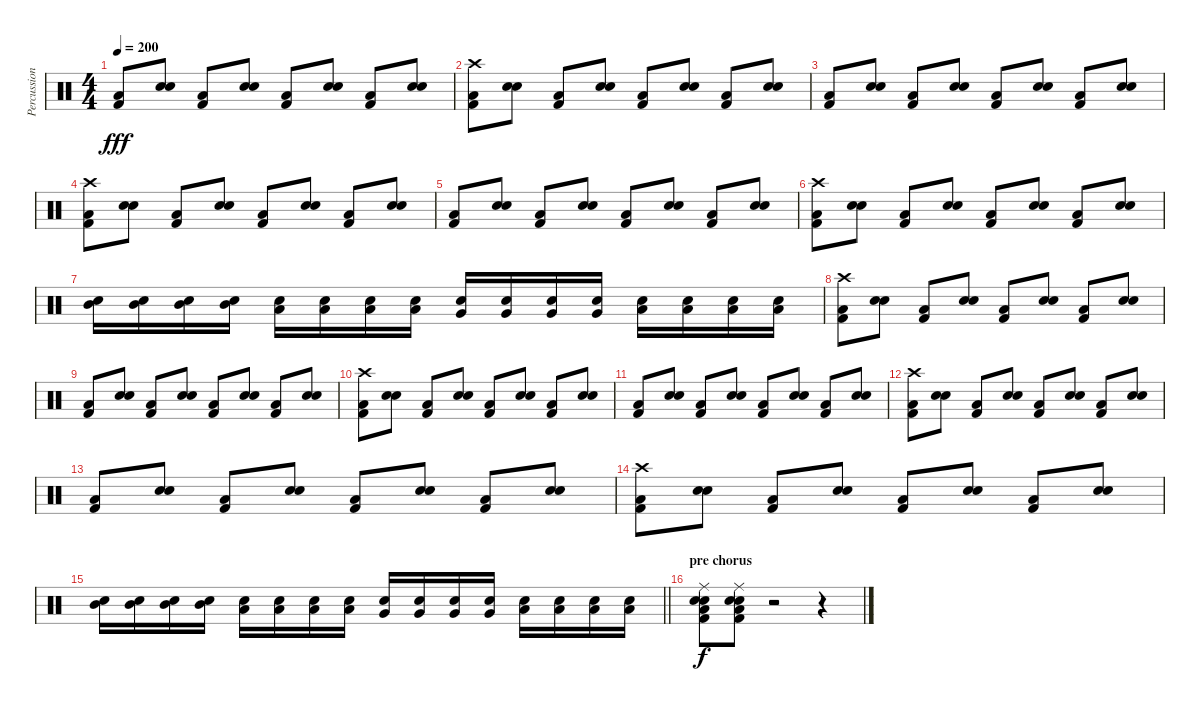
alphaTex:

\track ("Percussion, dave" "Percussion") {instrument percussion}
\staff {score}
\articulation defaults
\ts (4 4)
\tempo 200
\clef neutral
\ks c
("Low Tom (hit)" "Kick (hit) 2").8{dy fff} ("Electric Snare (hit)" "Snare (hit) 2").8 ("Low Tom (hit)" "Kick (hit) 2").8 ("Electric Snare (hit)" "Snare (hit) 2").8 ("Low Tom (hit)" "Kick (hit) 2").8 ("Electric Snare (hit)" "Snare (hit) 2").8 ("Low Tom (hit)" "Kick (hit) 2").8 ("Electric Snare (hit)" "Snare (hit) 2").8 |
("Crash high (hit)" "Low Tom (hit)" "Kick (hit) 2").8 ("Electric Snare (hit)" "Snare (hit) 2").8 ("Low Tom (hit)" "Kick (hit) 2").8 ("Electric Snare (hit)" "Snare (hit) 2").8 ("Low Tom (hit)" "Kick (hit) 2").8 ("Electric Snare (hit)" "Snare (hit) 2").8 ("Low Tom (hit)" "Kick (hit) 2").8 ("Electric Snare (hit)" "Snare (hit) 2").8 |
("Low Tom (hit)" "Kick (hit) 2").8 ("Electric Snare (hit)" "Snare (hit) 2").8 ("Low Tom (hit)" "Kick (hit) 2").8 ("Electric Snare (hit)" "Snare (hit) 2").8 ("Low Tom (hit)" "Kick (hit) 2").8 ("Electric Snare (hit)" "Snare (hit) 2").8 ("Low Tom (hit)" "Kick (hit) 2").8 ("Electric Snare (hit)" "Snare (hit) 2").8 |
("Crash high (hit)" "Low Tom (hit)" "Kick (hit) 2").8 ("Electric Snare (hit)" "Snare (hit) 2").8 ("Low Tom (hit)" "Kick (hit) 2").8 ("Electric Snare (hit)" "Snare (hit) 2").8 ("Low Tom (hit)" "Kick (hit) 2").8 ("Electric Snare (hit)" "Snare (hit) 2").8 ("Low Tom (hit)" "Kick (hit) 2").8 ("Electric Snare (hit)" "Snare (hit) 2").8 |
("Low Tom (hit)" "Kick (hit) 2").8 ("Electric Snare (hit)" "Snare (hit) 2").8 ("Low Tom (hit)" "Kick (hit) 2").8 ("Electric Snare (hit)" "Snare (hit) 2").8 ("Low Tom (hit)" "Kick (hit) 2").8 ("Electric Snare (hit)" "Snare (hit) 2").8 ("Low Tom (hit)" "Kick (hit) 2").8 ("Electric Snare (hit)" "Snare (hit) 2").8 |
("Crash high (hit)" "Low Tom (hit)" "Kick (hit) 2").8 ("Electric Snare (hit)" "Snare (hit) 2").8 ("Low Tom (hit)" "Kick (hit) 2").8 ("Electric Snare (hit)" "Snare (hit) 2").8 ("Low Tom (hit)" "Kick (hit) 2").8 ("Electric Snare (hit)" "Snare (hit) 2").8 ("Low Tom (hit)" "Kick (hit) 2").8 ("Electric Snare (hit)" "Snare (hit) 2").8 |
("Mid Tom (hit)" "Snare (hit) 2").16 ("Mid Tom (hit)" "Snare (hit) 2").16 ("Mid Tom (hit)" "Snare (hit) 2").16 ("Mid Tom (hit)" "Snare (hit) 2").16 ("Low Tom (hit)" "Snare (hit) 2").16 ("Low Tom (hit)" "Snare (hit) 2").16 ("Low Tom (hit)" "Snare (hit) 2").16 ("Low Tom (hit)" "Snare (hit) 2").16 ("Very Low Tom (hit)" "Snare (hit) 2").16 ("Very Low Tom (hit)" "Snare (hit) 2").16 ("Very Low Tom (hit)" "Snare (hit) 2").16 ("Very Low Tom (hit)" "Snare (hit) 2").16 ("Low Floor Tom (hit)" "Snare (hit) 2").16 ("Low Floor Tom (hit)" "Snare (hit) 2").16 ("Low Floor Tom (hit)" "Snare (hit) 2").16 ("Low Floor Tom (hit)" "Snare (hit) 2").16 |
("Crash high (hit)" "Low Tom (hit)" "Kick (hit) 2").8 ("Electric Snare (hit)" "Snare (hit) 2").8 ("Low Tom (hit)" "Kick (hit) 2").8 ("Electric Snare (hit)" "Snare (hit) 2").8 ("Low Tom (hit)" "Kick (hit) 2").8 ("Electric Snare (hit)" "Snare (hit) 2").8 ("Low Tom (hit)" "Kick (hit) 2").8 ("Electric Snare (hit)" "Snare (hit) 2").8 |
("Low Tom (hit)" "Kick (hit) 2").8 ("Electric Snare (hit)" "Snare (hit) 2").8 ("Low Tom (hit)" "Kick (hit) 2").8 ("Electric Snare (hit)" "Snare (hit) 2").8 ("Low Tom (hit)" "Kick (hit) 2").8 ("Electric Snare (hit)" "Snare (hit) 2").8 ("Low Tom (hit)" "Kick (hit) 2").8 ("Electric Snare (hit)" "Snare (hit) 2").8 |
("Crash high (hit)" "Low Tom (hit)" "Kick (hit) 2").8 ("Electric Snare (hit)" "Snare (hit) 2").8 ("Low Tom (hit)" "Kick (hit) 2").8 ("Electric Snare (hit)" "Snare (hit) 2").8 ("Low Tom (hit)" "Kick (hit) 2").8 ("Electric Snare (hit)" "Snare (hit) 2").8 ("Low Tom (hit)" "Kick (hit) 2").8 ("Electric Snare (hit)" "Snare (hit) 2").8 |
("Low Tom (hit)" "Kick (hit) 2").8 ("Electric Snare (hit)" "Snare (hit) 2").8 ("Low Tom (hit)" "Kick (hit) 2").8 ("Electric Snare (hit)" "Snare (hit) 2").8 ("Low Tom (hit)" "Kick (hit) 2").8 ("Electric Snare (hit)" "Snare (hit) 2").8 ("Low Tom (hit)" "Kick (hit) 2").8 ("Electric Snare (hit)" "Snare (hit) 2").8 |
("Crash high (hit)" "Low Tom (hit)" "Kick (hit) 2").8 ("Electric Snare (hit)" "Snare (hit) 2").8 ("Low Tom (hit)" "Kick (hit) 2").8 ("Electric Snare (hit)" "Snare (hit) 2").8 ("Low Tom (hit)" "Kick (hit) 2").8 ("Electric Snare (hit)" "Snare (hit) 2").8 ("Low Tom (hit)" "Kick (hit) 2").8 ("Electric Snare (hit)" "Snare (hit) 2").8 |
("Low Tom (hit)" "Kick (hit) 2").8 ("Electric Snare (hit)" "Snare (hit) 2").8 ("Low Tom (hit)" "Kick (hit) 2").8 ("Electric Snare (hit)" "Snare (hit) 2").8 ("Low Tom (hit)" "Kick (hit) 2").8 ("Electric Snare (hit)" "Snare (hit) 2").8 ("Low Tom (hit)" "Kick (hit) 2").8 ("Electric Snare (hit)" "Snare (hit) 2").8 |
("Crash high (hit)" "Low Tom (hit)" "Kick (hit) 2").8 ("Electric Snare (hit)" "Snare (hit) 2").8 ("Low Tom (hit)" "Kick (hit) 2").8 ("Electric Snare (hit)" "Snare (hit) 2").8 ("Low Tom (hit)" "Kick (hit) 2").8 ("Electric Snare (hit)" "Snare (hit) 2").8 ("Low Tom (hit)" "Kick (hit) 2").8 ("Electric Snare (hit)" "Snare (hit) 2").8 |
\barLineRight lightlight
("Mid Tom (hit)" "Snare (hit) 2").16 ("Mid Tom (hit)" "Snare (hit) 2").16 ("Mid Tom (hit)" "Snare (hit) 2").16 ("Mid Tom (hit)" "Snare (hit) 2").16 ("Low Tom (hit)" "Snare (hit) 2").16 ("Low Tom (hit)" "Snare (hit) 2").16 ("Low Tom (hit)" "Snare (hit) 2").16 ("Low Tom (hit)" "Snare (hit) 2").16 ("Very Low Tom (hit)" "Snare (hit) 2").16 ("Very Low Tom (hit)" "Snare (hit) 2").16 ("Very Low Tom (hit)" "Snare (hit) 2").16 ("Very Low Tom (hit)" "Snare (hit) 2").16 ("Low Floor Tom (hit)" "Snare (hit) 2").16 ("Low Floor Tom (hit)" "Snare (hit) 2").16 ("Low Floor Tom (hit)" "Snare (hit) 2").16 ("Low Floor Tom (hit)" "Snare (hit) 2").16 |
\section ("" "pre chorus")
("Ride (middle)" "Snare (hit) 2" "Electric Snare (hit)" "Low Tom (hit)" "Kick (hit) 2").8{dy f} ("Ride (middle)" "Snare (hit) 2" "Electric Snare (hit)" "Low Tom (hit)" "Kick (hit) 2").8 r.2 r.4
